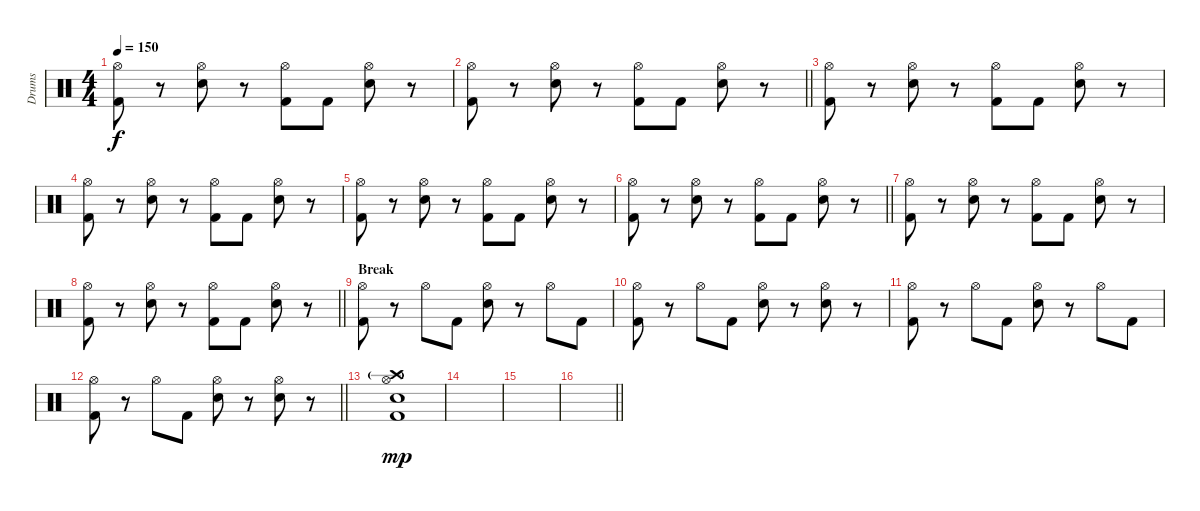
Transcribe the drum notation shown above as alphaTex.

\track ("Drums" "Drums") {instrument percussion}
\staff {score}
\articulation defaults
\ts (4 4)
\tempo 150
\clef neutral
\ks c
("Hi-Hat (open)" "Kick (hit) 2").8{dy f} r.8 ("Hi-Hat (open)" "Snare (hit) 2").8 r.8 ("Hi-Hat (open)" "Kick (hit) 2").8 "Kick (hit) 2".8 ("Hi-Hat (open)" "Snare (hit) 2").8 r.8 |
\barLineRight lightlight
("Hi-Hat (open)" "Kick (hit) 2").8 r.8 ("Hi-Hat (open)" "Snare (hit) 2").8 r.8 ("Hi-Hat (open)" "Kick (hit) 2").8 "Kick (hit) 2".8 ("Hi-Hat (open)" "Snare (hit) 2").8 r.8 |
("Hi-Hat (open)" "Kick (hit) 2").8 r.8 ("Hi-Hat (open)" "Snare (hit) 2").8 r.8 ("Hi-Hat (open)" "Kick (hit) 2").8 "Kick (hit) 2".8 ("Hi-Hat (open)" "Snare (hit) 2").8 r.8 |
("Hi-Hat (open)" "Kick (hit) 2").8 r.8 ("Hi-Hat (open)" "Snare (hit) 2").8 r.8 ("Hi-Hat (open)" "Kick (hit) 2").8 "Kick (hit) 2".8 ("Hi-Hat (open)" "Snare (hit) 2").8 r.8 |
("Hi-Hat (open)" "Kick (hit) 2").8 r.8 ("Hi-Hat (open)" "Snare (hit) 2").8 r.8 ("Hi-Hat (open)" "Kick (hit) 2").8 "Kick (hit) 2".8 ("Hi-Hat (open)" "Snare (hit) 2").8 r.8 |
\barLineRight lightlight
("Hi-Hat (open)" "Kick (hit) 2").8 r.8 ("Hi-Hat (open)" "Snare (hit) 2").8 r.8 ("Hi-Hat (open)" "Kick (hit) 2").8 "Kick (hit) 2".8 ("Hi-Hat (open)" "Snare (hit) 2").8 r.8 |
("Hi-Hat (open)" "Kick (hit) 2").8 r.8 ("Hi-Hat (open)" "Snare (hit) 2").8 r.8 ("Hi-Hat (open)" "Kick (hit) 2").8 "Kick (hit) 2".8 ("Hi-Hat (open)" "Snare (hit) 2").8 r.8 |
\barLineRight lightlight
("Hi-Hat (open)" "Kick (hit) 2").8 r.8 ("Hi-Hat (open)" "Snare (hit) 2").8 r.8 ("Hi-Hat (open)" "Kick (hit) 2").8 "Kick (hit) 2".8 ("Hi-Hat (open)" "Snare (hit) 2").8 r.8 |
\section ("" "Break")
("Hi-Hat (open)" "Kick (hit) 2").8 r.8 "Hi-Hat (open)".8 "Kick (hit) 2".8 ("Hi-Hat (open)" "Snare (hit) 2").8 r.8 "Hi-Hat (open)".8 "Kick (hit) 2".8 |
("Hi-Hat (open)" "Kick (hit) 2").8 r.8 "Hi-Hat (open)".8 "Kick (hit) 2".8 ("Hi-Hat (open)" "Snare (hit) 2").8 r.8 ("Hi-Hat (open)" "Snare (hit) 2").8 r.8 |
("Hi-Hat (open)" "Kick (hit) 2").8 r.8 "Hi-Hat (open)".8 "Kick (hit) 2".8 ("Hi-Hat (open)" "Snare (hit) 2").8 r.8 "Hi-Hat (open)".8 "Kick (hit) 2".8 |
\barLineRight lightlight
("Hi-Hat (open)" "Kick (hit) 2").8 r.8 "Hi-Hat (open)".8 "Kick (hit) 2".8 ("Hi-Hat (open)" "Snare (hit) 2").8 r.8 ("Hi-Hat (open)" "Snare (hit) 2").8 r.8 |
("Hi-Hat (open)" "Crash high (hit)"{g} "Snare (hit) 2" "Kick (hit) 2").1{dy mp} |
|
|
\barLineRight lightlight
